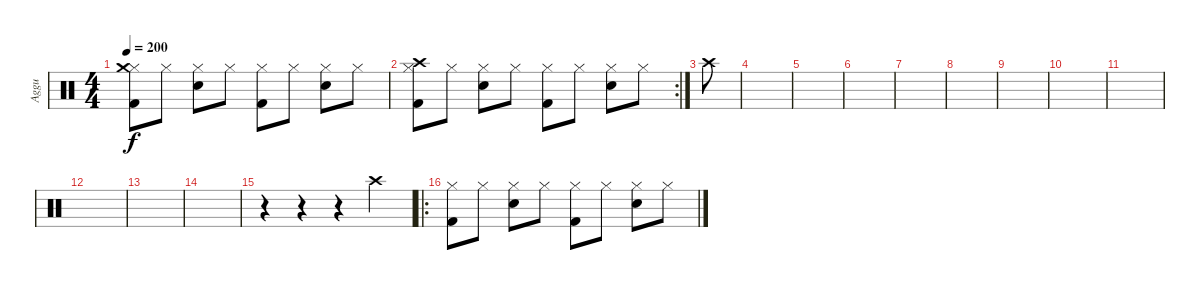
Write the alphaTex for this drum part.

\track ("Aggu" "Aggu") {instrument percussion}
\staff {score}
\articulation defaults
\ts (4 4)
\tempo 200
\clef neutral
\ks c
("Hi-Hat (closed)" "Crash medium (hit)" "Kick (hit) 2").8{dy f} "Hi-Hat (closed)".8 ("Hi-Hat (closed)" "Snare (hit) 2").8 "Hi-Hat (closed)".8 ("Hi-Hat (closed)" "Kick (hit) 2").8 "Hi-Hat (closed)".8 ("Hi-Hat (closed)" "Snare (hit) 2").8 "Hi-Hat (closed)".8 |
\rc 2
("Hi-Hat (closed)" "Crash high (hit)" "Kick (hit) 2").8 "Hi-Hat (closed)".8 ("Hi-Hat (closed)" "Snare (hit) 2").8 "Hi-Hat (closed)".8 ("Hi-Hat (closed)" "Kick (hit) 2").8 "Hi-Hat (closed)".8 ("Hi-Hat (closed)" "Snare (hit) 2").8 "Hi-Hat (closed)".8 |
"Crash high (hit)".8 |
|
|
|
|
|
|
|
|
|
|
|
r.4 r.4 r.4 "Crash high (hit)".4 |
\ro
("Hi-Hat (closed)" "Kick (hit) 2").8 "Hi-Hat (closed)".8 ("Hi-Hat (closed)" "Snare (hit) 2").8 "Hi-Hat (closed)".8 ("Hi-Hat (closed)" "Kick (hit) 2").8 "Hi-Hat (closed)".8 ("Hi-Hat (closed)" "Snare (hit) 2").8 "Hi-Hat (closed)".8
